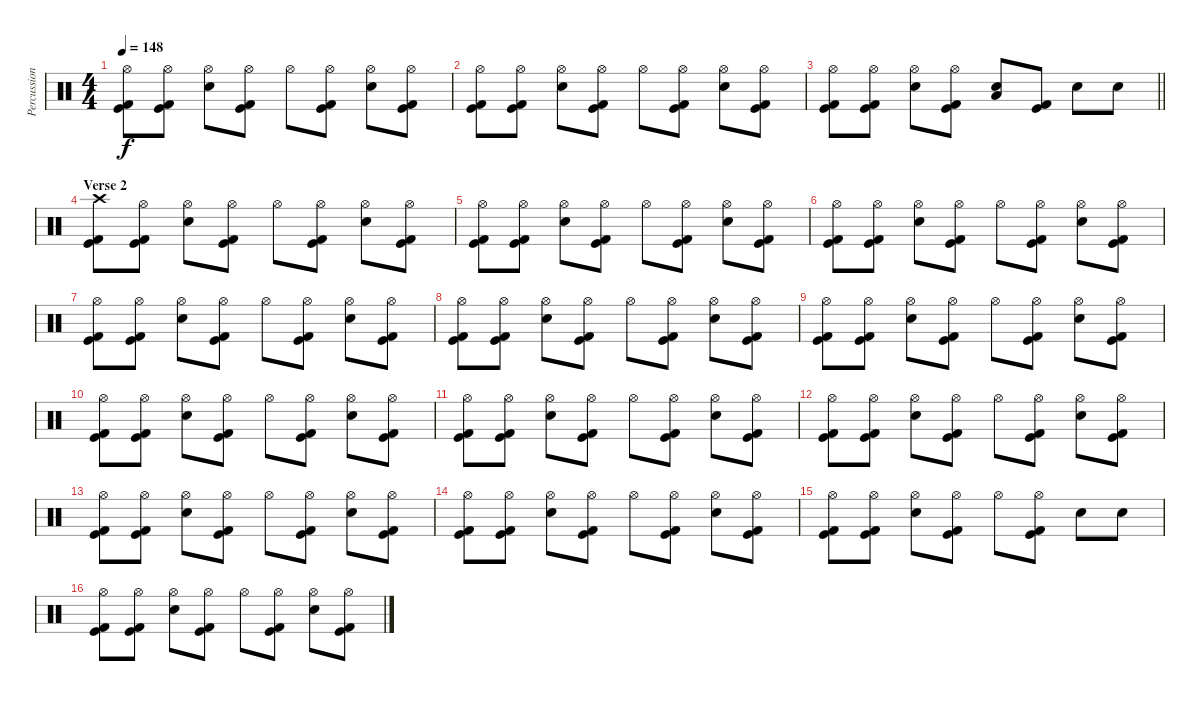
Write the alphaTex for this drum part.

\track ("Percussion" "Percussion") {instrument percussion}
\staff {score}
\articulation defaults
\ts (4 4)
\tempo 148
\clef neutral
\ks c
("Hi-Hat (open)" "Kick (hit)" "Kick (hit) 2").8{dy f} ("Hi-Hat (open)" "Kick (hit)" "Kick (hit) 2").8 ("Hi-Hat (open)" "Electric Snare (hit)").8 ("Hi-Hat (open)" "Kick (hit)" "Kick (hit) 2").8 "Hi-Hat (open)".8 ("Hi-Hat (open)" "Kick (hit)" "Kick (hit) 2").8 ("Hi-Hat (open)" "Electric Snare (hit)").8 ("Hi-Hat (open)" "Kick (hit)" "Kick (hit) 2").8 |
("Hi-Hat (open)" "Kick (hit)" "Kick (hit) 2").8 ("Hi-Hat (open)" "Kick (hit)" "Kick (hit) 2").8 ("Hi-Hat (open)" "Electric Snare (hit)").8 ("Hi-Hat (open)" "Kick (hit)" "Kick (hit) 2").8 "Hi-Hat (open)".8 ("Hi-Hat (open)" "Kick (hit)" "Kick (hit) 2").8 ("Hi-Hat (open)" "Electric Snare (hit)").8 ("Hi-Hat (open)" "Kick (hit)" "Kick (hit) 2").8 |
\barLineRight lightlight
("Hi-Hat (open)" "Kick (hit)" "Kick (hit) 2").8 ("Hi-Hat (open)" "Kick (hit)" "Kick (hit) 2").8 ("Hi-Hat (open)" "Electric Snare (hit)").8 ("Hi-Hat (open)" "Kick (hit)" "Kick (hit) 2").8 ("Low Tom (hit)" "Electric Snare (hit)").8 ("Kick (hit)" "Kick (hit) 2").8 "Electric Snare (hit)".8 "Electric Snare (hit)".8 |
\section ("" "Verse 2")
("Crash high (hit)" "Kick (hit)" "Kick (hit) 2").8 ("Hi-Hat (open)" "Kick (hit)" "Kick (hit) 2").8 ("Hi-Hat (open)" "Electric Snare (hit)").8 ("Hi-Hat (open)" "Kick (hit)" "Kick (hit) 2").8 "Hi-Hat (open)".8 ("Hi-Hat (open)" "Kick (hit)" "Kick (hit) 2").8 ("Hi-Hat (open)" "Electric Snare (hit)").8 ("Hi-Hat (open)" "Kick (hit)" "Kick (hit) 2").8 |
("Hi-Hat (open)" "Kick (hit)" "Kick (hit) 2").8 ("Hi-Hat (open)" "Kick (hit)" "Kick (hit) 2").8 ("Hi-Hat (open)" "Electric Snare (hit)").8 ("Hi-Hat (open)" "Kick (hit)" "Kick (hit) 2").8 "Hi-Hat (open)".8 ("Hi-Hat (open)" "Kick (hit)" "Kick (hit) 2").8 ("Hi-Hat (open)" "Electric Snare (hit)").8 ("Hi-Hat (open)" "Kick (hit)" "Kick (hit) 2").8 |
("Hi-Hat (open)" "Kick (hit)" "Kick (hit) 2").8 ("Hi-Hat (open)" "Kick (hit)" "Kick (hit) 2").8 ("Hi-Hat (open)" "Electric Snare (hit)").8 ("Hi-Hat (open)" "Kick (hit)" "Kick (hit) 2").8 "Hi-Hat (open)".8 ("Hi-Hat (open)" "Kick (hit)" "Kick (hit) 2").8 ("Hi-Hat (open)" "Electric Snare (hit)").8 ("Hi-Hat (open)" "Kick (hit)" "Kick (hit) 2").8 |
("Hi-Hat (open)" "Kick (hit)" "Kick (hit) 2").8 ("Hi-Hat (open)" "Kick (hit)" "Kick (hit) 2").8 ("Hi-Hat (open)" "Electric Snare (hit)").8 ("Hi-Hat (open)" "Kick (hit)" "Kick (hit) 2").8 "Hi-Hat (open)".8 ("Hi-Hat (open)" "Kick (hit)" "Kick (hit) 2").8 ("Hi-Hat (open)" "Electric Snare (hit)").8 ("Hi-Hat (open)" "Kick (hit)" "Kick (hit) 2").8 |
("Hi-Hat (open)" "Kick (hit)" "Kick (hit) 2").8 ("Hi-Hat (open)" "Kick (hit)" "Kick (hit) 2").8 ("Hi-Hat (open)" "Electric Snare (hit)").8 ("Hi-Hat (open)" "Kick (hit)" "Kick (hit) 2").8 "Hi-Hat (open)".8 ("Hi-Hat (open)" "Kick (hit)" "Kick (hit) 2").8 ("Hi-Hat (open)" "Electric Snare (hit)").8 ("Hi-Hat (open)" "Kick (hit)" "Kick (hit) 2").8 |
("Hi-Hat (open)" "Kick (hit)" "Kick (hit) 2").8 ("Hi-Hat (open)" "Kick (hit)" "Kick (hit) 2").8 ("Hi-Hat (open)" "Electric Snare (hit)").8 ("Hi-Hat (open)" "Kick (hit)" "Kick (hit) 2").8 "Hi-Hat (open)".8 ("Hi-Hat (open)" "Kick (hit)" "Kick (hit) 2").8 ("Hi-Hat (open)" "Electric Snare (hit)").8 ("Hi-Hat (open)" "Kick (hit)" "Kick (hit) 2").8 |
("Hi-Hat (open)" "Kick (hit)" "Kick (hit) 2").8 ("Hi-Hat (open)" "Kick (hit)" "Kick (hit) 2").8 ("Hi-Hat (open)" "Electric Snare (hit)").8 ("Hi-Hat (open)" "Kick (hit)" "Kick (hit) 2").8 "Hi-Hat (open)".8 ("Hi-Hat (open)" "Kick (hit)" "Kick (hit) 2").8 ("Hi-Hat (open)" "Electric Snare (hit)").8 ("Hi-Hat (open)" "Kick (hit)" "Kick (hit) 2").8 |
("Hi-Hat (open)" "Kick (hit)" "Kick (hit) 2").8 ("Hi-Hat (open)" "Kick (hit)" "Kick (hit) 2").8 ("Hi-Hat (open)" "Electric Snare (hit)").8 ("Hi-Hat (open)" "Kick (hit)" "Kick (hit) 2").8 "Hi-Hat (open)".8 ("Hi-Hat (open)" "Kick (hit)" "Kick (hit) 2").8 ("Hi-Hat (open)" "Electric Snare (hit)").8 ("Hi-Hat (open)" "Kick (hit)" "Kick (hit) 2").8 |
("Hi-Hat (open)" "Kick (hit)" "Kick (hit) 2").8 ("Hi-Hat (open)" "Kick (hit)" "Kick (hit) 2").8 ("Hi-Hat (open)" "Electric Snare (hit)").8 ("Hi-Hat (open)" "Kick (hit)" "Kick (hit) 2").8 "Hi-Hat (open)".8 ("Hi-Hat (open)" "Kick (hit)" "Kick (hit) 2").8 ("Hi-Hat (open)" "Electric Snare (hit)").8 ("Hi-Hat (open)" "Kick (hit)" "Kick (hit) 2").8 |
("Hi-Hat (open)" "Kick (hit)" "Kick (hit) 2").8 ("Hi-Hat (open)" "Kick (hit)" "Kick (hit) 2").8 ("Hi-Hat (open)" "Electric Snare (hit)").8 ("Hi-Hat (open)" "Kick (hit)" "Kick (hit) 2").8 "Hi-Hat (open)".8 ("Hi-Hat (open)" "Kick (hit)" "Kick (hit) 2").8 ("Hi-Hat (open)" "Electric Snare (hit)").8 ("Hi-Hat (open)" "Kick (hit)" "Kick (hit) 2").8 |
("Hi-Hat (open)" "Kick (hit)" "Kick (hit) 2").8 ("Hi-Hat (open)" "Kick (hit)" "Kick (hit) 2").8 ("Hi-Hat (open)" "Electric Snare (hit)").8 ("Hi-Hat (open)" "Kick (hit)" "Kick (hit) 2").8 "Hi-Hat (open)".8 ("Hi-Hat (open)" "Kick (hit)" "Kick (hit) 2").8 ("Hi-Hat (open)" "Electric Snare (hit)").8 ("Hi-Hat (open)" "Kick (hit)" "Kick (hit) 2").8 |
("Hi-Hat (open)" "Kick (hit)" "Kick (hit) 2").8 ("Hi-Hat (open)" "Kick (hit)" "Kick (hit) 2").8 ("Hi-Hat (open)" "Electric Snare (hit)").8 ("Hi-Hat (open)" "Kick (hit)" "Kick (hit) 2").8 "Hi-Hat (open)".8 ("Hi-Hat (open)" "Kick (hit)" "Kick (hit) 2").8 "Electric Snare (hit)".8 "Electric Snare (hit)".8 |
("Hi-Hat (open)" "Kick (hit)" "Kick (hit) 2").8 ("Hi-Hat (open)" "Kick (hit)" "Kick (hit) 2").8 ("Hi-Hat (open)" "Electric Snare (hit)").8 ("Hi-Hat (open)" "Kick (hit)" "Kick (hit) 2").8 "Hi-Hat (open)".8 ("Hi-Hat (open)" "Kick (hit)" "Kick (hit) 2").8 ("Hi-Hat (open)" "Electric Snare (hit)").8 ("Hi-Hat (open)" "Kick (hit)" "Kick (hit) 2").8
